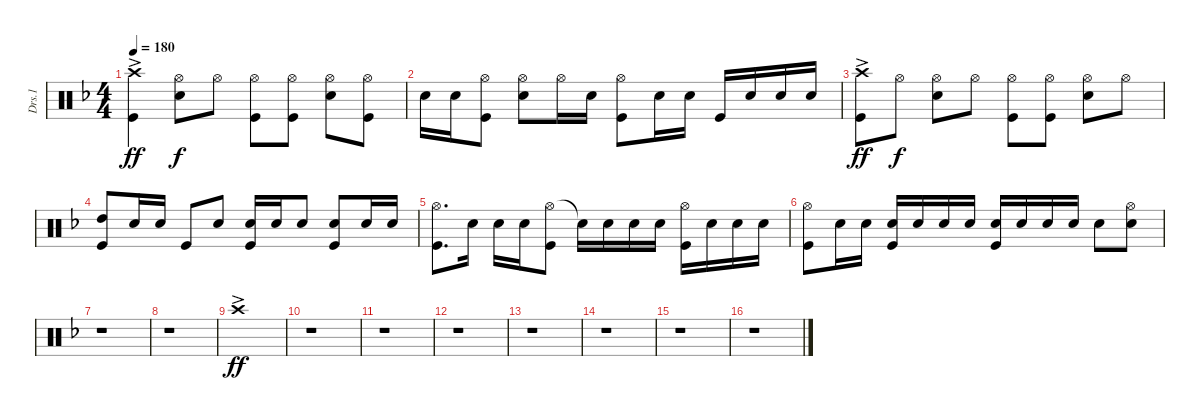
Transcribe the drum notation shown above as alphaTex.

\track ("Drs.1" "Drs.1") {instrument percussion}
\staff {score}
\articulation defaults
\ts (4 4)
\tempo 180
\clef neutral
\ks f
("Crash high (hit)"{ac} "Kick (hit)").4{dy ff} ("Hi-Hat (open)" "Snare (hit) 2").8{dy f} "Hi-Hat (open)".8 ("Hi-Hat (open)" "Kick (hit)").8 ("Hi-Hat (open)" "Kick (hit)").8 ("Hi-Hat (open)" "Snare (hit) 2").8 ("Hi-Hat (open)" "Kick (hit)").8 |
"Snare (hit) 2".16 "Snare (hit) 2".16 ("Hi-Hat (open)" "Kick (hit)").8 ("Hi-Hat (open)" "Snare (hit) 2").8 "Hi-Hat (open)".16 "Snare (hit) 2".16 ("Hi-Hat (open)" "Kick (hit)").8 "Snare (hit) 2".16 "Snare (hit) 2".16 "Kick (hit)".16 "Snare (hit) 2".16 "Snare (hit) 2".16 "Snare (hit) 2".16 |
("Crash high (hit)"{ac} "Kick (hit)").8{dy ff} "Hi-Hat (open)".8{dy f} ("Hi-Hat (open)" "Snare (hit) 2").8 "Hi-Hat (open)".8 ("Hi-Hat (open)" "Kick (hit)").8 ("Hi-Hat (open)" "Kick (hit)").8 ("Hi-Hat (open)" "Snare (hit) 2").8 "Hi-Hat (open)".8 |
("High Tom (hit)" "Kick (hit)").8 "Snare (hit) 2".16 "Snare (hit) 2".16 "Kick (hit)".8 "Snare (hit) 2".8 ("Snare (hit) 2" "Kick (hit)").16 "Snare (hit) 2".16 "Snare (hit) 2".8 ("Snare (hit) 2" "Kick (hit)").8 "Snare (hit) 2".16 "Snare (hit) 2".16 |
("Hi-Hat (open)" "Kick (hit)").8{d} "Snare (hit) 2".16 "Snare (hit) 2".16 "Snare (hit) 2".16 ("Hi-Hat (open)" "Kick (hit)").8 "Snare (hit)"{t}.16 "Snare (hit) 2".16 "Snare (hit) 2".16 "Snare (hit) 2".16 ("Hi-Hat (open)" "Kick (hit)").16 "Snare (hit) 2".16 "Snare (hit) 2".16 "Snare (hit) 2".16 |
("Hi-Hat (open)" "Kick (hit)").8 "Snare (hit) 2".16 "Snare (hit) 2".16 ("Snare (hit) 2" "Kick (hit)").16 "Snare (hit) 2".16 "Snare (hit) 2".16 "Snare (hit) 2".16 ("Snare (hit) 2" "Kick (hit)").16 "Snare (hit) 2".16 "Snare (hit) 2".16 "Snare (hit) 2".16 "Snare (hit) 2".8 ("Hi-Hat (open)" "Snare (hit) 2").8 |
r.1 |
r.1 |
"Crash high (hit)"{ac}.1{dy ff} |
r.1 |
r.1 |
r.1 |
r.1 |
r.1 |
r.1 |
r.1
